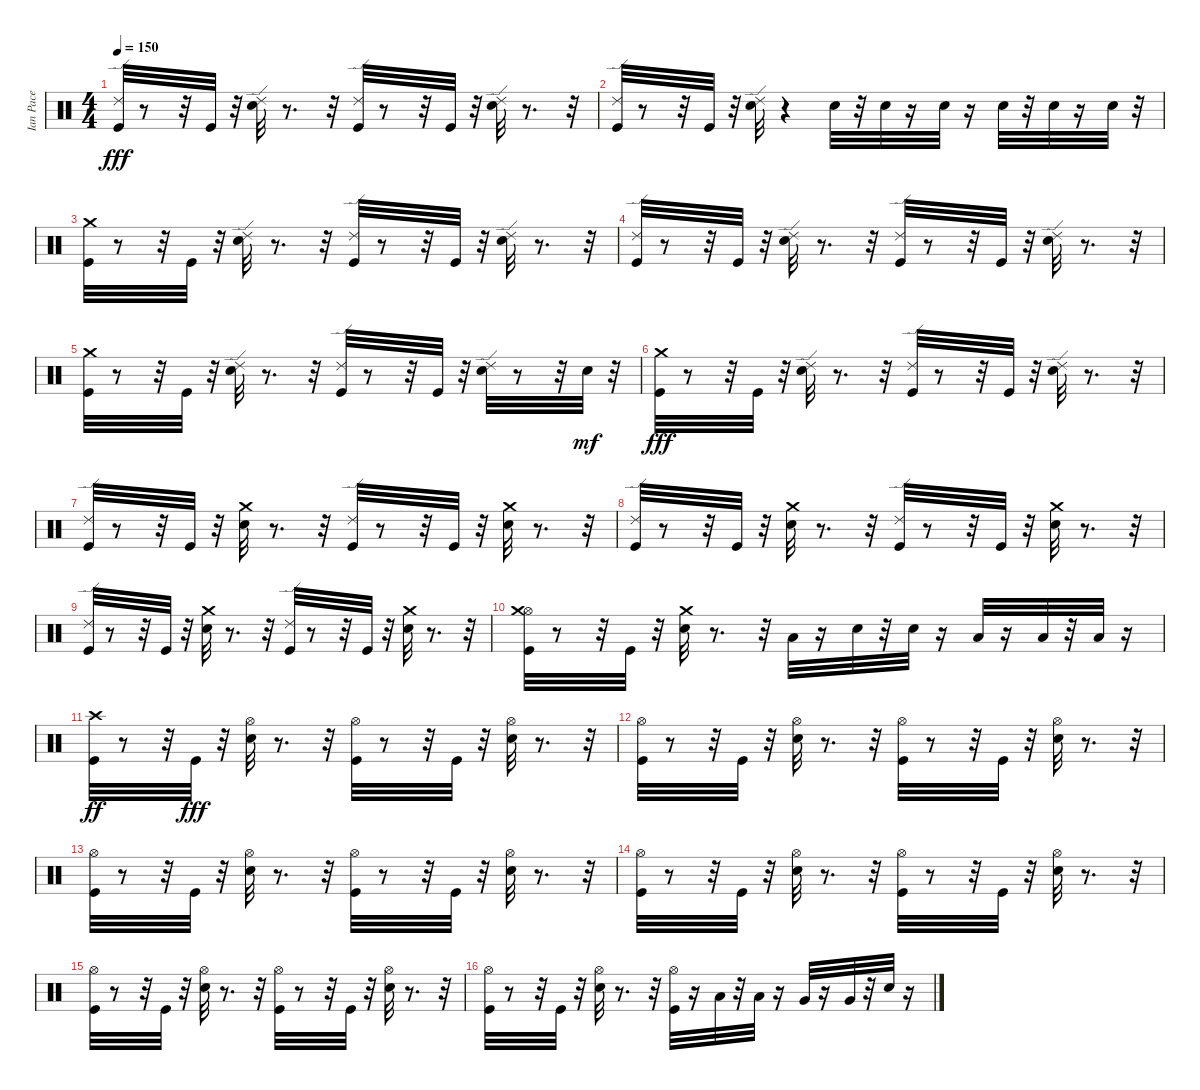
\track ("Ian Pace" "Ian Pace") {instrument percussion}
\staff {score}
\articulation defaults
\ts (4 4)
\tempo 150
\clef neutral
\ks c
("Ride (edge) 2" "Kick (hit)").32{dy fff} r.8 r.32 "Kick (hit)".32 r.32 ("Electric Snare (hit)" "Ride (edge) 2").32 r.8{d} r.32 ("Kick (hit)" "Ride (edge) 2").32 r.8 r.32 "Kick (hit)".32 r.32 ("Electric Snare (hit)" "Ride (edge) 2").32 r.8{d} r.32 |
("Kick (hit)" "Ride (edge) 2").32 r.8 r.32 "Kick (hit)".32 r.32 ("Ride (edge) 2" "Electric Snare (hit)").32 r.4 "Electric Snare (hit)".32 r.32 "Electric Snare (hit)".32 r.16 "Electric Snare (hit)".32 r.16 "Electric Snare (hit)".32 r.32 "Electric Snare (hit)".32 r.16 "Electric Snare (hit)".32 r.32 |
("Crash medium (hit)" "Kick (hit)").32 r.8 r.32 "Kick (hit)".32 r.32 ("Electric Snare (hit)" "Ride (edge) 2").32 r.8{d} r.32 ("Kick (hit)" "Ride (edge) 2").32 r.8 r.32 "Kick (hit)".32 r.32 ("Electric Snare (hit)" "Ride (edge) 2").32 r.8{d} r.32 |
("Ride (edge) 2" "Kick (hit)").32 r.8 r.32 "Kick (hit)".32 r.32 ("Ride (edge) 2" "Electric Snare (hit)").32 r.8{d} r.32 ("Kick (hit)" "Ride (edge) 2").32 r.8 r.32 "Kick (hit)".32 r.32 ("Ride (edge) 2" "Electric Snare (hit)").32 r.8{d} r.32 |
("Kick (hit)" "Crash medium (hit)").32 r.8 r.32 "Kick (hit)".32 r.32 ("Ride (edge) 2" "Electric Snare (hit)").32 r.8{d} r.32 ("Ride (edge) 2" "Kick (hit)").32 r.8 r.32 "Kick (hit)".32 r.32 ("Ride (edge) 2" "Electric Snare (hit)").32 r.8 r.32 "Electric Snare (hit)".32{dy mf} r.32 |
("Crash medium (hit)" "Kick (hit)").32{dy fff} r.8 r.32 "Kick (hit)".32 r.32 ("Electric Snare (hit)" "Ride (edge) 2").32 r.8{d} r.32 ("Kick (hit)" "Ride (edge) 2").32 r.8 r.32 "Kick (hit)".32 r.32 ("Electric Snare (hit)" "Ride (edge) 2").32 r.8{d} r.32 |
("Kick (hit)" "Ride (edge) 2").32 r.8 r.32 "Kick (hit)".32 r.32 ("Crash medium (hit)" "Electric Snare (hit)").32 r.8{d} r.32 ("Ride (edge) 2" "Kick (hit)").32 r.8 r.32 "Kick (hit)".32 r.32 ("Electric Snare (hit)" "Crash medium (hit)").32 r.8{d} r.32 |
("Ride (edge) 2" "Kick (hit)").32 r.8 r.32 "Kick (hit)".32 r.32 ("Crash medium (hit)" "Electric Snare (hit)").32 r.8{d} r.32 ("Ride (edge) 2" "Kick (hit)").32 r.8 r.32 "Kick (hit)".32 r.32 ("Crash medium (hit)" "Electric Snare (hit)").32 r.8{d} r.32 |
("Ride (edge) 2" "Kick (hit)").32 r.8 r.32 "Kick (hit)".32 r.32 ("Electric Snare (hit)" "Crash medium (hit)").32 r.8{d} r.32 ("Kick (hit)" "Ride (edge) 2").32 r.8 r.32 "Kick (hit)".32 r.32 ("Electric Snare (hit)" "Crash medium (hit)").32 r.8{d} r.32 |
("Hi-Hat (open)" "Kick (hit)" "Crash medium (hit)").32 r.8 r.32 "Kick (hit)".32 r.32 ("Crash medium (hit)" "Electric Snare (hit)").32 r.8{d} r.32 "Low Tom (hit)".32 r.16 "Electric Snare (hit)".32 r.32 "Electric Snare (hit)".32 r.16 "Low Tom (hit)".32 r.16 "Low Tom (hit)".32 r.32 "Low Tom (hit)".32 r.16 |
("Kick (hit)" "Crash high (hit)").32{dy ff} r.8 r.32 "Kick (hit)".32{dy fff} r.32 ("Electric Snare (hit)" "Hi-Hat (open)").32 r.8{d} r.32 ("Hi-Hat (open)" "Kick (hit)").32 r.8 r.32 "Kick (hit)".32 r.32 ("Electric Snare (hit)" "Hi-Hat (open)").32 r.8{d} r.32 |
("Hi-Hat (open)" "Kick (hit)").32 r.8 r.32 "Kick (hit)".32 r.32 ("Electric Snare (hit)" "Hi-Hat (open)").32 r.8{d} r.32 ("Hi-Hat (open)" "Kick (hit)").32 r.8 r.32 "Kick (hit)".32 r.32 ("Electric Snare (hit)" "Hi-Hat (open)").32 r.8{d} r.32 |
("Hi-Hat (open)" "Kick (hit)").32 r.8 r.32 "Kick (hit)".32 r.32 ("Electric Snare (hit)" "Hi-Hat (open)").32 r.8{d} r.32 ("Hi-Hat (open)" "Kick (hit)").32 r.8 r.32 "Kick (hit)".32 r.32 ("Hi-Hat (open)" "Electric Snare (hit)").32 r.8{d} r.32 |
("Hi-Hat (open)" "Kick (hit)").32 r.8 r.32 "Kick (hit)".32 r.32 ("Electric Snare (hit)" "Hi-Hat (open)").32 r.8{d} r.32 ("Kick (hit)" "Hi-Hat (open)").32 r.8 r.32 "Kick (hit)".32 r.32 ("Electric Snare (hit)" "Hi-Hat (open)").32 r.8{d} r.32 |
("Hi-Hat (open)" "Kick (hit)").32 r.8 r.32 "Kick (hit)".32 r.32 ("Electric Snare (hit)" "Hi-Hat (open)").32 r.8{d} r.32 ("Hi-Hat (open)" "Kick (hit)").32 r.8 r.32 "Kick (hit)".32 r.32 ("Electric Snare (hit)" "Hi-Hat (open)").32 r.8{d} r.32 |
("Kick (hit)" "Hi-Hat (open)").32 r.8 r.32 "Kick (hit)".32 r.32 ("Electric Snare (hit)" "Hi-Hat (open)").32 r.8{d} r.32 ("Hi-Hat (open)" "Kick (hit)").32 r.16 "Low Tom (hit)".32 r.32 "Low Tom (hit)".32 r.16 "Very Low Tom (hit)".32 r.16 "Very Low Tom (hit)".32 r.32 "Electric Snare (hit)".32 r.16
